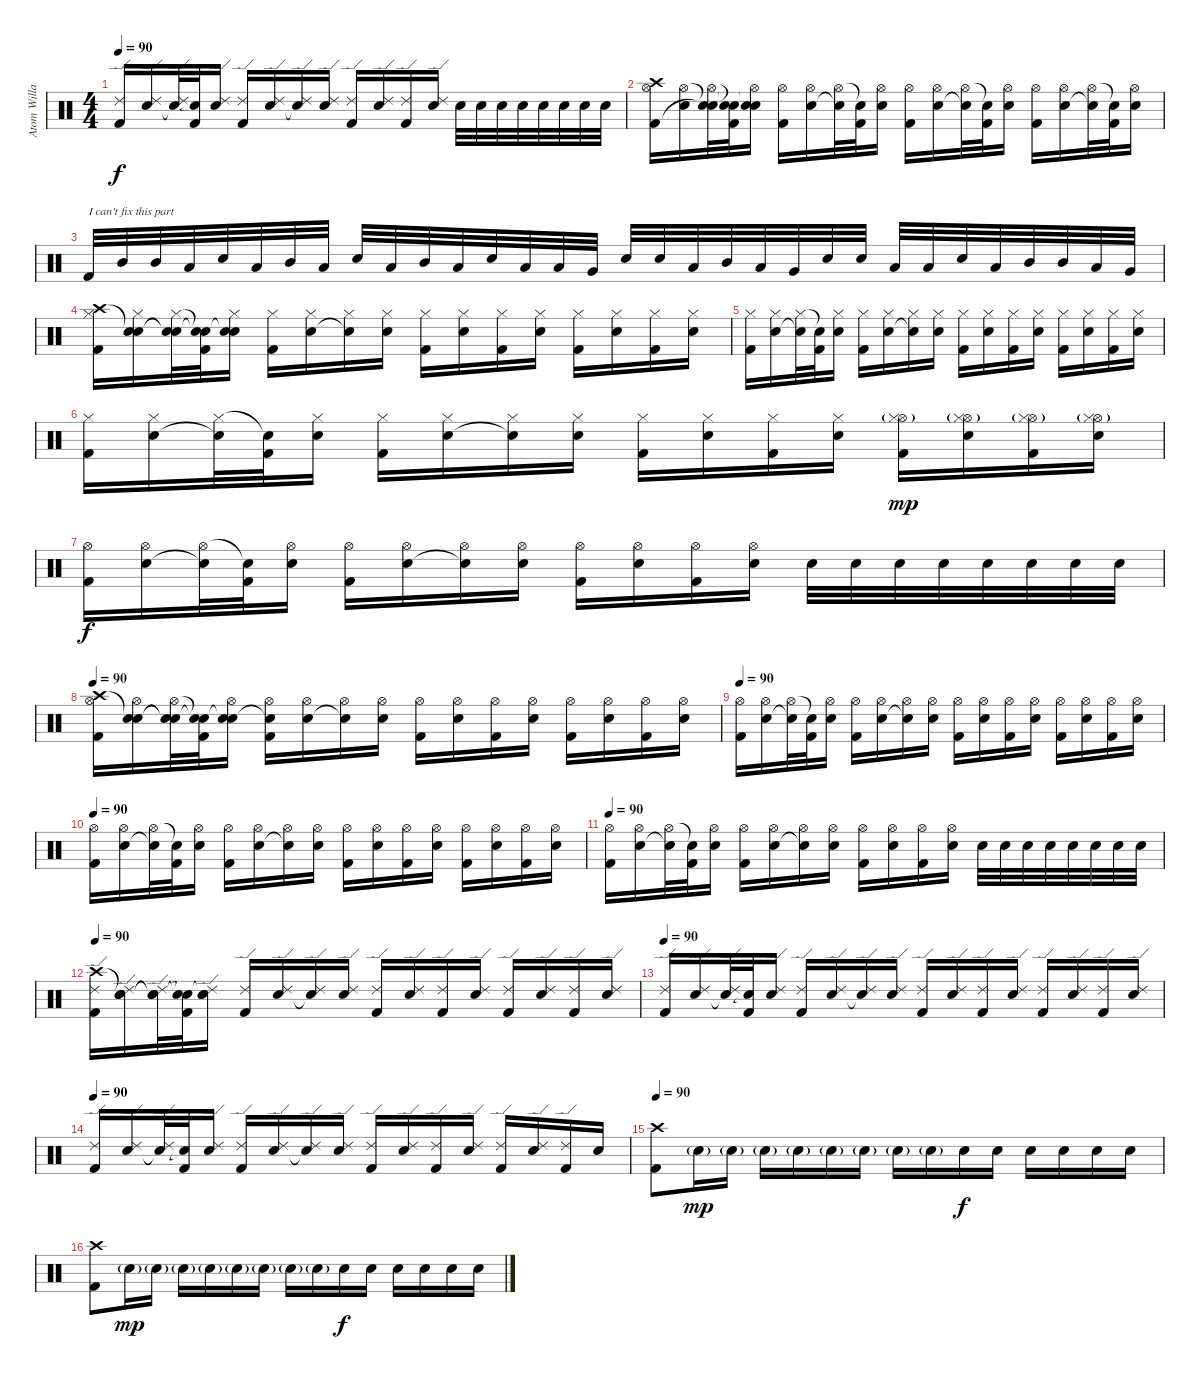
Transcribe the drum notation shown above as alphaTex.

\track ("Atom Willard (Drums)" "Atom Willa") {instrument percussion}
\staff {score}
\articulation defaults
\ts (4 4)
\tempo 90
\clef neutral
\ks c
("Ride (edge) 2" "Kick (hit) 2").16{dy f} ("Ride (edge) 2" "Electric Snare (hit)").16 ("Ride (edge) 2" "Snare (hit)"{t}).32 ("Snare (hit)"{t} "Kick (hit) 2").32 ("Ride (edge) 2" "Electric Snare (hit)").16 ("Ride (edge) 2" "Kick (hit) 2").16 ("Ride (edge) 2" "Electric Snare (hit)").16 ("Ride (edge) 2" "Snare (hit)"{t}).16 ("Ride (edge) 2" "Electric Snare (hit)").16 ("Ride (edge) 2" "Kick (hit) 2").16 ("Ride (edge) 2" "Electric Snare (hit)").16 ("Ride (edge) 2" "Kick (hit) 2").16 ("Ride (edge) 2" "Electric Snare (hit)").16 "Electric Snare (hit)".32 "Electric Snare (hit)".32 "Electric Snare (hit)".32 "Electric Snare (hit)".32 "Electric Snare (hit)".32 "Electric Snare (hit)".32 "Electric Snare (hit)".32 "Electric Snare (hit)".32 |
("Crash high (hit)" "Hi-Hat (open)" "Kick (hit) 2").16 ("Hi-Hat (open)" "Electric Snare (hit)").16 ("Snare (hit)"{t} "Hi-Hat (open)" "Snare (hit)"{t}).32 ("Snare (hit)"{t} "Snare (hit)"{t} "Kick (hit) 2").32 ("Snare (hit)"{t} "Hi-Hat (open)" "Electric Snare (hit)").16 ("Hi-Hat (open)" "Kick (hit) 2").16 ("Hi-Hat (open)" "Electric Snare (hit)").16 ("Hi-Hat (open)" "Snare (hit)"{t}).32 ("Snare (hit)"{t} "Kick (hit) 2").32 ("Hi-Hat (open)" "Electric Snare (hit)").16 ("Hi-Hat (open)" "Kick (hit) 2").16 ("Hi-Hat (open)" "Electric Snare (hit)").16 ("Hi-Hat (open)" "Snare (hit)"{t}).32 ("Snare (hit)"{t} "Kick (hit) 2").32 ("Hi-Hat (open)" "Electric Snare (hit)").16 ("Hi-Hat (open)" "Kick (hit) 2").16 ("Hi-Hat (open)" "Electric Snare (hit)").16 ("Hi-Hat (open)" "Snare (hit)"{t}).32 ("Snare (hit)"{t} "Kick (hit) 2").32 ("Hi-Hat (open)" "Electric Snare (hit)").16 |
"Kick (hit) 2".32{txt "I can't fix this part"} "Mid Tom (hit)".32 "Mid Tom (hit)".32 "Low Tom (hit)".32 "Electric Snare (hit)".32 "Low Tom (hit)".32 "Mid Tom (hit)".32 "Low Tom (hit)".32 "Electric Snare (hit)".32 "Low Tom (hit)".32 "Mid Tom (hit)".32 "Low Tom (hit)".32 "Electric Snare (hit)".32 "Low Tom (hit)".32 "Low Tom (hit)".32 "Very Low Tom (hit)".32 "Electric Snare (hit)".32 "Electric Snare (hit)".32 "Low Tom (hit)".32 "Mid Tom (hit)".32 "Low Tom (hit)".32 "Very Low Tom (hit)".32 "Electric Snare (hit)".32 "Electric Snare (hit)".32 "Low Tom (hit)".32 "Low Tom (hit)".32 "Electric Snare (hit)".32 "Low Tom (hit)".32 "Mid Tom (hit)".32 "Mid Tom (hit)".32 "Low Tom (hit)".32 "Very Low Tom (hit)".32 |
("Crash high (hit)" "Hi-Hat (closed)" "Kick (hit) 2").16 ("Snare (hit)"{t} "Hi-Hat (closed)" "Electric Snare (hit)").16 ("Snare (hit)"{t} "Hi-Hat (closed)" "Snare (hit)"{t}).32 ("Snare (hit)"{t} "Snare (hit)"{t} "Kick (hit) 2").32 ("Snare (hit)"{t} "Hi-Hat (closed)" "Electric Snare (hit)").16 ("Hi-Hat (closed)" "Kick (hit) 2").16 ("Hi-Hat (closed)" "Electric Snare (hit)").16 ("Hi-Hat (closed)" "Snare (hit)"{t}).16 ("Hi-Hat (closed)" "Electric Snare (hit)").16 ("Hi-Hat (closed)" "Kick (hit) 2").16 ("Hi-Hat (closed)" "Electric Snare (hit)").16 ("Hi-Hat (closed)" "Kick (hit) 2").16 ("Hi-Hat (closed)" "Electric Snare (hit)").16 ("Hi-Hat (closed)" "Kick (hit) 2").16 ("Hi-Hat (closed)" "Electric Snare (hit)").16 ("Hi-Hat (closed)" "Kick (hit) 2").16 ("Hi-Hat (closed)" "Electric Snare (hit)").16 |
("Hi-Hat (closed)" "Kick (hit) 2").16 ("Hi-Hat (closed)" "Electric Snare (hit)").16 ("Hi-Hat (closed)" "Snare (hit)"{t}).32 ("Snare (hit)"{t} "Kick (hit) 2").32 ("Hi-Hat (closed)" "Electric Snare (hit)").16 ("Hi-Hat (closed)" "Kick (hit) 2").16 ("Hi-Hat (closed)" "Electric Snare (hit)").16 ("Hi-Hat (closed)" "Snare (hit)"{t}).16 ("Hi-Hat (closed)" "Electric Snare (hit)").16 ("Hi-Hat (closed)" "Kick (hit) 2").16 ("Hi-Hat (closed)" "Electric Snare (hit)").16 ("Hi-Hat (closed)" "Kick (hit) 2").16 ("Hi-Hat (closed)" "Electric Snare (hit)").16 ("Hi-Hat (closed)" "Kick (hit) 2").16 ("Hi-Hat (closed)" "Electric Snare (hit)").16 ("Hi-Hat (closed)" "Kick (hit) 2").16 ("Hi-Hat (closed)" "Electric Snare (hit)").16 |
("Hi-Hat (closed)" "Kick (hit) 2").16 ("Hi-Hat (closed)" "Electric Snare (hit)").16 ("Hi-Hat (closed)" "Snare (hit)"{t}).32 ("Snare (hit)"{t} "Kick (hit) 2").32 ("Hi-Hat (closed)" "Electric Snare (hit)").16 ("Hi-Hat (closed)" "Kick (hit) 2").16 ("Hi-Hat (closed)" "Electric Snare (hit)").16 ("Hi-Hat (closed)" "Snare (hit)"{t}).16 ("Hi-Hat (closed)" "Electric Snare (hit)").16 ("Hi-Hat (closed)" "Kick (hit) 2").16 ("Hi-Hat (closed)" "Electric Snare (hit)").16 ("Hi-Hat (closed)" "Kick (hit) 2").16 ("Hi-Hat (closed)" "Electric Snare (hit)").16 ("Hi-Hat (open)"{g} "Hi-Hat (closed)" "Kick (hit) 2").16{dy mp} ("Hi-Hat (open)"{g} "Hi-Hat (closed)" "Electric Snare (hit)").16 ("Hi-Hat (open)"{g} "Hi-Hat (closed)" "Kick (hit) 2").16 ("Hi-Hat (open)"{g} "Hi-Hat (closed)" "Electric Snare (hit)").16 |
("Hi-Hat (open)" "Kick (hit) 2").16{dy f} ("Hi-Hat (open)" "Electric Snare (hit)").16 ("Hi-Hat (open)" "Snare (hit)"{t}).32 ("Snare (hit)"{t} "Kick (hit) 2").32 ("Hi-Hat (open)" "Electric Snare (hit)").16 ("Hi-Hat (open)" "Kick (hit) 2").16 ("Hi-Hat (open)" "Electric Snare (hit)").16 ("Hi-Hat (open)" "Snare (hit)"{t}).16 ("Hi-Hat (open)" "Electric Snare (hit)").16 ("Hi-Hat (open)" "Kick (hit) 2").16 ("Hi-Hat (open)" "Electric Snare (hit)").16 ("Hi-Hat (open)" "Kick (hit) 2").16 ("Hi-Hat (open)" "Electric Snare (hit)").16 "Electric Snare (hit)".32 "Electric Snare (hit)".32 "Electric Snare (hit)".32 "Electric Snare (hit)".32 "Electric Snare (hit)".32 "Electric Snare (hit)".32 "Electric Snare (hit)".32 "Electric Snare (hit)".32 |
\tempo 90
("Crash high (hit)" "Hi-Hat (open)" "Kick (hit) 2").16 ("Snare (hit)"{t} "Hi-Hat (open)" "Electric Snare (hit)").16 ("Snare (hit)"{t} "Hi-Hat (open)" "Snare (hit)"{t}).32 ("Snare (hit)"{t} "Snare (hit)"{t} "Kick (hit) 2").32 ("Snare (hit)"{t} "Hi-Hat (open)" "Electric Snare (hit)").16 ("Snare (hit)"{t} "Hi-Hat (open)" "Kick (hit) 2").16 ("Hi-Hat (open)" "Electric Snare (hit)").16 ("Hi-Hat (open)" "Snare (hit)"{t}).16 ("Hi-Hat (open)" "Electric Snare (hit)").16 ("Hi-Hat (open)" "Kick (hit) 2").16 ("Hi-Hat (open)" "Electric Snare (hit)").16 ("Hi-Hat (open)" "Kick (hit) 2").16 ("Hi-Hat (open)" "Electric Snare (hit)").16 ("Hi-Hat (open)" "Kick (hit) 2").16 ("Hi-Hat (open)" "Electric Snare (hit)").16 ("Hi-Hat (open)" "Kick (hit) 2").16 ("Hi-Hat (open)" "Electric Snare (hit)").16 |
\tempo 90
("Hi-Hat (open)" "Kick (hit) 2").16 ("Hi-Hat (open)" "Electric Snare (hit)").16 ("Hi-Hat (open)" "Snare (hit)"{t}).32 ("Snare (hit)"{t} "Kick (hit) 2").32 ("Hi-Hat (open)" "Electric Snare (hit)").16 ("Hi-Hat (open)" "Kick (hit) 2").16 ("Hi-Hat (open)" "Electric Snare (hit)").16 ("Hi-Hat (open)" "Snare (hit)"{t}).16 ("Hi-Hat (open)" "Electric Snare (hit)").16 ("Hi-Hat (open)" "Kick (hit) 2").16 ("Hi-Hat (open)" "Electric Snare (hit)").16 ("Hi-Hat (open)" "Kick (hit) 2").16 ("Hi-Hat (open)" "Electric Snare (hit)").16 ("Hi-Hat (open)" "Kick (hit) 2").16 ("Hi-Hat (open)" "Electric Snare (hit)").16 ("Hi-Hat (open)" "Kick (hit) 2").16 ("Hi-Hat (open)" "Electric Snare (hit)").16 |
\tempo 90
("Hi-Hat (open)" "Kick (hit) 2").16 ("Hi-Hat (open)" "Electric Snare (hit)").16 ("Hi-Hat (open)" "Snare (hit)"{t}).32 ("Snare (hit)"{t} "Kick (hit) 2").32 ("Hi-Hat (open)" "Electric Snare (hit)").16 ("Hi-Hat (open)" "Kick (hit) 2").16 ("Hi-Hat (open)" "Electric Snare (hit)").16 ("Hi-Hat (open)" "Snare (hit)"{t}).16 ("Hi-Hat (open)" "Electric Snare (hit)").16 ("Hi-Hat (open)" "Kick (hit) 2").16 ("Hi-Hat (open)" "Electric Snare (hit)").16 ("Hi-Hat (open)" "Kick (hit) 2").16 ("Hi-Hat (open)" "Electric Snare (hit)").16 ("Hi-Hat (open)" "Kick (hit) 2").16 ("Hi-Hat (open)" "Electric Snare (hit)").16 ("Hi-Hat (open)" "Kick (hit) 2").16 ("Hi-Hat (open)" "Electric Snare (hit)").16 |
\tempo 90
("Hi-Hat (open)" "Kick (hit) 2").16 ("Hi-Hat (open)" "Electric Snare (hit)").16 ("Hi-Hat (open)" "Snare (hit)"{t}).32 ("Snare (hit)"{t} "Kick (hit) 2").32 ("Hi-Hat (open)" "Electric Snare (hit)").16 ("Hi-Hat (open)" "Kick (hit) 2").16 ("Hi-Hat (open)" "Electric Snare (hit)").16 ("Hi-Hat (open)" "Snare (hit)"{t}).16 ("Hi-Hat (open)" "Electric Snare (hit)").16 ("Hi-Hat (open)" "Kick (hit) 2").16 ("Hi-Hat (open)" "Electric Snare (hit)").16 ("Hi-Hat (open)" "Kick (hit) 2").16 ("Hi-Hat (open)" "Electric Snare (hit)").16 "Electric Snare (hit)".32 "Electric Snare (hit)".32 "Electric Snare (hit)".32 "Electric Snare (hit)".32 "Electric Snare (hit)".32 "Electric Snare (hit)".32 "Electric Snare (hit)".32 "Electric Snare (hit)".32 |
\tempo 90
("Crash high (hit)" "Ride (edge) 2" "Kick (hit) 2").16 ("Snare (hit)"{t} "Ride (edge) 2" "Electric Snare (hit)").16 ("Snare (hit)"{t} "Ride (edge) 2" "Snare (hit)"{t}).32 ("Snare (hit)"{t} "Snare (hit)"{t} "Kick (hit) 2").32 ("Snare (hit)"{t} "Ride (edge) 2" "Electric Snare (hit)").16 ("Ride (edge) 2" "Kick (hit) 2").16 ("Ride (edge) 2" "Electric Snare (hit)").16 ("Ride (edge) 2" "Snare (hit)"{t}).16 ("Ride (edge) 2" "Electric Snare (hit)").16 ("Ride (edge) 2" "Kick (hit) 2").16 ("Ride (edge) 2" "Electric Snare (hit)").16 ("Ride (edge) 2" "Kick (hit) 2").16 ("Ride (edge) 2" "Electric Snare (hit)").16 ("Ride (edge) 2" "Kick (hit) 2").16 ("Ride (edge) 2" "Electric Snare (hit)").16 ("Ride (edge) 2" "Kick (hit) 2").16 ("Ride (edge) 2" "Electric Snare (hit)").16 |
\tempo 90
("Ride (edge) 2" "Kick (hit) 2").16 ("Ride (edge) 2" "Electric Snare (hit)").16 ("Ride (edge) 2" "Snare (hit)"{t}).32 ("Snare (hit)"{t} "Kick (hit) 2").32 ("Ride (edge) 2" "Electric Snare (hit)").16 ("Ride (edge) 2" "Kick (hit) 2").16 ("Ride (edge) 2" "Electric Snare (hit)").16 ("Ride (edge) 2" "Snare (hit)"{t}).16 ("Ride (edge) 2" "Electric Snare (hit)").16 ("Ride (edge) 2" "Kick (hit) 2").16 ("Ride (edge) 2" "Electric Snare (hit)").16 ("Ride (edge) 2" "Kick (hit) 2").16 ("Ride (edge) 2" "Electric Snare (hit)").16 ("Ride (edge) 2" "Kick (hit) 2").16 ("Ride (edge) 2" "Electric Snare (hit)").16 ("Ride (edge) 2" "Kick (hit) 2").16 ("Ride (edge) 2" "Electric Snare (hit)").16 |
\tempo 90
("Ride (edge) 2" "Kick (hit) 2").16 ("Ride (edge) 2" "Electric Snare (hit)").16 ("Ride (edge) 2" "Snare (hit)"{t}).32 ("Snare (hit)"{t} "Kick (hit) 2").32 ("Ride (edge) 2" "Electric Snare (hit)").16 ("Ride (edge) 2" "Kick (hit) 2").16 ("Ride (edge) 2" "Electric Snare (hit)").16 ("Ride (edge) 2" "Snare (hit)"{t}).16 ("Ride (edge) 2" "Electric Snare (hit)").16 ("Ride (edge) 2" "Kick (hit) 2").16 ("Ride (edge) 2" "Electric Snare (hit)").16 ("Ride (edge) 2" "Kick (hit) 2").16 ("Ride (edge) 2" "Electric Snare (hit)").16 ("Ride (edge) 2" "Kick (hit) 2").16 ("Ride (edge) 2" "Electric Snare (hit)").16 ("Ride (edge) 2" "Kick (hit) 2").16 "Electric Snare (hit)".16 |
\tempo 90
("Crash high (hit)" "Kick (hit) 2").8 "Electric Snare (hit)"{g}.16{dy mp} "Electric Snare (hit)"{g}.16 "Electric Snare (hit)"{g}.16 "Electric Snare (hit)"{g}.16 "Electric Snare (hit)"{g}.16 "Electric Snare (hit)"{g}.16 "Electric Snare (hit)"{g}.16 "Electric Snare (hit)"{g}.16 "Electric Snare (hit)".16{dy f} "Electric Snare (hit)".16 "Electric Snare (hit)".16 "Electric Snare (hit)".16 "Electric Snare (hit)".16 "Electric Snare (hit)".16 |
("Crash high (hit)" "Kick (hit) 2").8 "Electric Snare (hit)"{g}.16{dy mp} "Electric Snare (hit)"{g}.16 "Electric Snare (hit)"{g}.16 "Electric Snare (hit)"{g}.16 "Electric Snare (hit)"{g}.16 "Electric Snare (hit)"{g}.16 "Electric Snare (hit)"{g}.16 "Electric Snare (hit)"{g}.16 "Electric Snare (hit)".16{dy f} "Electric Snare (hit)".16 "Electric Snare (hit)".16 "Electric Snare (hit)".16 "Electric Snare (hit)".16 "Electric Snare (hit)".16
